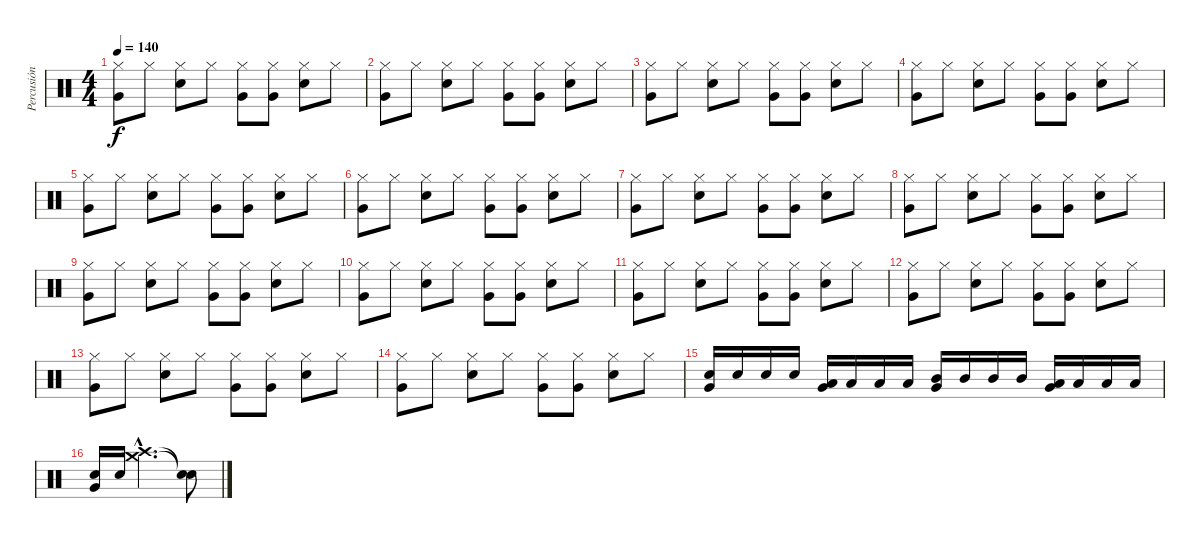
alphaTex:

\track ("Percusión" "Percusión") {instrument percussion}
\staff {score}
\articulation defaults
\ts (4 4)
\tempo 140
\clef neutral
\ks c
("Hi-Hat (closed)" "Very Low Tom (hit)").8{dy f} "Hi-Hat (closed)".8 ("Hi-Hat (closed)" "Snare (hit) 2").8 "Hi-Hat (closed)".8 ("Hi-Hat (closed)" "Very Low Tom (hit)").8 ("Hi-Hat (closed)" "Very Low Tom (hit)").8 ("Hi-Hat (closed)" "Snare (hit) 2").8 "Hi-Hat (closed)".8 |
("Hi-Hat (closed)" "Very Low Tom (hit)").8 "Hi-Hat (closed)".8 ("Hi-Hat (closed)" "Snare (hit) 2").8 "Hi-Hat (closed)".8 ("Hi-Hat (closed)" "Very Low Tom (hit)").8 ("Hi-Hat (closed)" "Very Low Tom (hit)").8 ("Hi-Hat (closed)" "Snare (hit) 2").8 "Hi-Hat (closed)".8 |
("Hi-Hat (closed)" "Very Low Tom (hit)").8 "Hi-Hat (closed)".8 ("Hi-Hat (closed)" "Snare (hit) 2").8 "Hi-Hat (closed)".8 ("Hi-Hat (closed)" "Very Low Tom (hit)").8 ("Hi-Hat (closed)" "Very Low Tom (hit)").8 ("Hi-Hat (closed)" "Snare (hit) 2").8 "Hi-Hat (closed)".8 |
("Hi-Hat (closed)" "Very Low Tom (hit)").8 "Hi-Hat (closed)".8 ("Hi-Hat (closed)" "Snare (hit) 2").8 "Hi-Hat (closed)".8 ("Hi-Hat (closed)" "Very Low Tom (hit)").8 ("Hi-Hat (closed)" "Very Low Tom (hit)").8 ("Hi-Hat (closed)" "Snare (hit) 2").8 "Hi-Hat (closed)".8 |
("Hi-Hat (closed)" "Very Low Tom (hit)").8 "Hi-Hat (closed)".8 ("Hi-Hat (closed)" "Snare (hit) 2").8 "Hi-Hat (closed)".8 ("Hi-Hat (closed)" "Very Low Tom (hit)").8 ("Hi-Hat (closed)" "Very Low Tom (hit)").8 ("Hi-Hat (closed)" "Snare (hit) 2").8 "Hi-Hat (closed)".8 |
("Hi-Hat (closed)" "Very Low Tom (hit)").8 "Hi-Hat (closed)".8 ("Hi-Hat (closed)" "Snare (hit) 2").8 "Hi-Hat (closed)".8 ("Hi-Hat (closed)" "Very Low Tom (hit)").8 ("Hi-Hat (closed)" "Very Low Tom (hit)").8 ("Hi-Hat (closed)" "Snare (hit) 2").8 "Hi-Hat (closed)".8 |
("Hi-Hat (closed)" "Very Low Tom (hit)").8 "Hi-Hat (closed)".8 ("Hi-Hat (closed)" "Snare (hit) 2").8 "Hi-Hat (closed)".8 ("Hi-Hat (closed)" "Very Low Tom (hit)").8 ("Hi-Hat (closed)" "Very Low Tom (hit)").8 ("Hi-Hat (closed)" "Snare (hit) 2").8 "Hi-Hat (closed)".8 |
("Hi-Hat (closed)" "Very Low Tom (hit)").8 "Hi-Hat (closed)".8 ("Hi-Hat (closed)" "Snare (hit) 2").8 "Hi-Hat (closed)".8 ("Hi-Hat (closed)" "Very Low Tom (hit)").8 ("Hi-Hat (closed)" "Very Low Tom (hit)").8 ("Hi-Hat (closed)" "Snare (hit) 2").8 "Hi-Hat (closed)".8 |
("Hi-Hat (closed)" "Very Low Tom (hit)").8 "Hi-Hat (closed)".8 ("Hi-Hat (closed)" "Snare (hit) 2").8 "Hi-Hat (closed)".8 ("Hi-Hat (closed)" "Very Low Tom (hit)").8 ("Hi-Hat (closed)" "Very Low Tom (hit)").8 ("Hi-Hat (closed)" "Snare (hit) 2").8 "Hi-Hat (closed)".8 |
("Hi-Hat (closed)" "Very Low Tom (hit)").8 "Hi-Hat (closed)".8 ("Hi-Hat (closed)" "Snare (hit) 2").8 "Hi-Hat (closed)".8 ("Hi-Hat (closed)" "Very Low Tom (hit)").8 ("Hi-Hat (closed)" "Very Low Tom (hit)").8 ("Hi-Hat (closed)" "Snare (hit) 2").8 "Hi-Hat (closed)".8 |
("Hi-Hat (closed)" "Very Low Tom (hit)").8 "Hi-Hat (closed)".8 ("Hi-Hat (closed)" "Snare (hit) 2").8 "Hi-Hat (closed)".8 ("Hi-Hat (closed)" "Very Low Tom (hit)").8 ("Hi-Hat (closed)" "Very Low Tom (hit)").8 ("Hi-Hat (closed)" "Snare (hit) 2").8 "Hi-Hat (closed)".8 |
("Hi-Hat (closed)" "Very Low Tom (hit)").8 "Hi-Hat (closed)".8 ("Hi-Hat (closed)" "Snare (hit) 2").8 "Hi-Hat (closed)".8 ("Hi-Hat (closed)" "Very Low Tom (hit)").8 ("Hi-Hat (closed)" "Very Low Tom (hit)").8 ("Hi-Hat (closed)" "Snare (hit) 2").8 "Hi-Hat (closed)".8 |
("Hi-Hat (closed)" "Very Low Tom (hit)").8 "Hi-Hat (closed)".8 ("Hi-Hat (closed)" "Snare (hit) 2").8 "Hi-Hat (closed)".8 ("Hi-Hat (closed)" "Very Low Tom (hit)").8 ("Hi-Hat (closed)" "Very Low Tom (hit)").8 ("Hi-Hat (closed)" "Snare (hit) 2").8 "Hi-Hat (closed)".8 |
("Hi-Hat (closed)" "Very Low Tom (hit)").8 "Hi-Hat (closed)".8 ("Hi-Hat (closed)" "Snare (hit) 2").8 "Hi-Hat (closed)".8 ("Hi-Hat (closed)" "Very Low Tom (hit)").8 ("Hi-Hat (closed)" "Very Low Tom (hit)").8 ("Hi-Hat (closed)" "Snare (hit) 2").8 "Hi-Hat (closed)".8 |
("Snare (hit) 2" "Very Low Tom (hit)").16 "Snare (hit) 2".16 "Snare (hit) 2".16 "Snare (hit) 2".16 ("Low Tom (hit)" "Very Low Tom (hit)").16 "Low Tom (hit)".16 "Low Tom (hit)".16 "Low Tom (hit)".16 ("Mid Tom (hit)" "Very Low Tom (hit)").16 "Mid Tom (hit)".16 "Mid Tom (hit)".16 "Mid Tom (hit)".16 ("Low Tom (hit)" "Very Low Tom (hit)").16 "Low Tom (hit)".16 "Low Tom (hit)".16 "Low Tom (hit)".16 |
("Snare (hit) 2" "Very Low Tom (hit)").16 "Snare (hit) 2".16 ("Crash high (hit)"{hac} "Crash medium (hit)"{hac}).2{d} ("Snare (hit)"{t} "Snare (hit)"{t}).8
